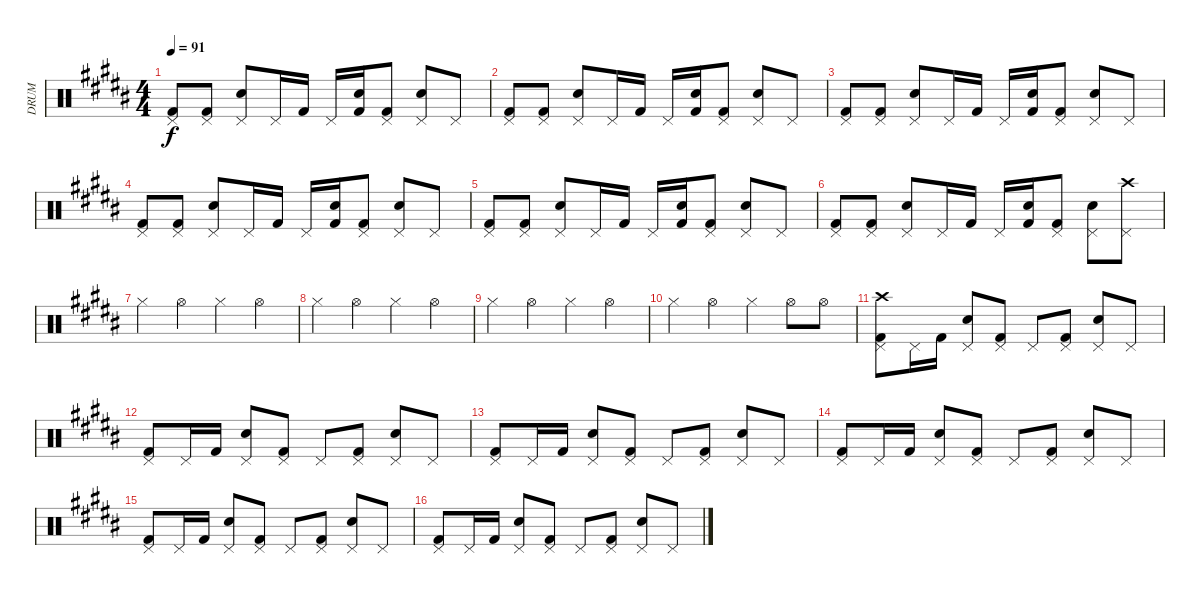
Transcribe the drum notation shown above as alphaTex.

\track ("DRUM" "DRUM") {instrument percussion}
\staff {score}
\articulation defaults
\ts (4 4)
\tempo 91
\clef neutral
\ks b
("Pedal Hi-Hat (hit)" "Kick (hit) 2").8{dy f} ("Pedal Hi-Hat (hit)" "Kick (hit) 2").8 ("Pedal Hi-Hat (hit)" "Electric Snare (hit)").8 "Pedal Hi-Hat (hit)".16 "Kick (hit) 2".16 "Pedal Hi-Hat (hit)".16 ("Electric Snare (hit)" "Kick (hit) 2").16 ("Pedal Hi-Hat (hit)" "Kick (hit) 2").8 ("Pedal Hi-Hat (hit)" "Electric Snare (hit)").8 "Pedal Hi-Hat (hit)".8 |
("Pedal Hi-Hat (hit)" "Kick (hit) 2").8 ("Pedal Hi-Hat (hit)" "Kick (hit) 2").8 ("Pedal Hi-Hat (hit)" "Electric Snare (hit)").8 "Pedal Hi-Hat (hit)".16 "Kick (hit) 2".16 "Pedal Hi-Hat (hit)".16 ("Electric Snare (hit)" "Kick (hit) 2").16 ("Pedal Hi-Hat (hit)" "Kick (hit) 2").8 ("Pedal Hi-Hat (hit)" "Electric Snare (hit)").8 "Pedal Hi-Hat (hit)".8 |
("Pedal Hi-Hat (hit)" "Kick (hit) 2").8 ("Pedal Hi-Hat (hit)" "Kick (hit) 2").8 ("Pedal Hi-Hat (hit)" "Electric Snare (hit)").8 "Pedal Hi-Hat (hit)".16 "Kick (hit) 2".16 "Pedal Hi-Hat (hit)".16 ("Electric Snare (hit)" "Kick (hit) 2").16 ("Pedal Hi-Hat (hit)" "Kick (hit) 2").8 ("Pedal Hi-Hat (hit)" "Electric Snare (hit)").8 "Pedal Hi-Hat (hit)".8 |
("Pedal Hi-Hat (hit)" "Kick (hit) 2").8 ("Pedal Hi-Hat (hit)" "Kick (hit) 2").8 ("Pedal Hi-Hat (hit)" "Electric Snare (hit)").8 "Pedal Hi-Hat (hit)".16 "Kick (hit) 2".16 "Pedal Hi-Hat (hit)".16 ("Electric Snare (hit)" "Kick (hit) 2").16 ("Pedal Hi-Hat (hit)" "Kick (hit) 2").8 ("Pedal Hi-Hat (hit)" "Electric Snare (hit)").8 "Pedal Hi-Hat (hit)".8 |
("Pedal Hi-Hat (hit)" "Kick (hit) 2").8 ("Pedal Hi-Hat (hit)" "Kick (hit) 2").8 ("Pedal Hi-Hat (hit)" "Electric Snare (hit)").8 "Pedal Hi-Hat (hit)".16 "Kick (hit) 2".16 "Pedal Hi-Hat (hit)".16 ("Electric Snare (hit)" "Kick (hit) 2").16 ("Pedal Hi-Hat (hit)" "Kick (hit) 2").8 ("Pedal Hi-Hat (hit)" "Electric Snare (hit)").8 "Pedal Hi-Hat (hit)".8 |
("Pedal Hi-Hat (hit)" "Kick (hit) 2").8 ("Pedal Hi-Hat (hit)" "Kick (hit) 2").8 ("Pedal Hi-Hat (hit)" "Electric Snare (hit)").8 "Pedal Hi-Hat (hit)".16 "Kick (hit) 2".16 "Pedal Hi-Hat (hit)".16 ("Electric Snare (hit)" "Kick (hit) 2").16 ("Pedal Hi-Hat (hit)" "Kick (hit) 2").8 ("Pedal Hi-Hat (hit)" "Electric Snare (hit)").8 ("Crash high (hit)" "Pedal Hi-Hat (hit)").8 |
"Hi-Hat (closed)".4 "Hi-Hat (open)".4 "Hi-Hat (closed)".4 "Hi-Hat (open)".4 |
"Hi-Hat (closed)".4 "Hi-Hat (open)".4 "Hi-Hat (closed)".4 "Hi-Hat (open)".4 |
"Hi-Hat (closed)".4 "Hi-Hat (open)".4 "Hi-Hat (closed)".4 "Hi-Hat (open)".4 |
"Hi-Hat (closed)".4 "Hi-Hat (open)".4 "Hi-Hat (closed)".4 "Hi-Hat (open)".8 "Hi-Hat (open)".8 |
("Crash high (hit)" "Pedal Hi-Hat (hit)" "Kick (hit) 2").8 "Pedal Hi-Hat (hit)".16 "Kick (hit) 2".16 ("Pedal Hi-Hat (hit)" "Electric Snare (hit)").8 ("Pedal Hi-Hat (hit)" "Kick (hit) 2").8 "Pedal Hi-Hat (hit)".8 ("Pedal Hi-Hat (hit)" "Kick (hit) 2").8 ("Pedal Hi-Hat (hit)" "Electric Snare (hit)").8 "Pedal Hi-Hat (hit)".8 |
("Pedal Hi-Hat (hit)" "Kick (hit) 2").8 "Pedal Hi-Hat (hit)".16 "Kick (hit) 2".16 ("Pedal Hi-Hat (hit)" "Electric Snare (hit)").8 ("Pedal Hi-Hat (hit)" "Kick (hit) 2").8 "Pedal Hi-Hat (hit)".8 ("Pedal Hi-Hat (hit)" "Kick (hit) 2").8 ("Pedal Hi-Hat (hit)" "Electric Snare (hit)").8 "Pedal Hi-Hat (hit)".8 |
("Pedal Hi-Hat (hit)" "Kick (hit) 2").8 "Pedal Hi-Hat (hit)".16 "Kick (hit) 2".16 ("Pedal Hi-Hat (hit)" "Electric Snare (hit)").8 ("Pedal Hi-Hat (hit)" "Kick (hit) 2").8 "Pedal Hi-Hat (hit)".8 ("Pedal Hi-Hat (hit)" "Kick (hit) 2").8 ("Pedal Hi-Hat (hit)" "Electric Snare (hit)").8 "Pedal Hi-Hat (hit)".8 |
("Pedal Hi-Hat (hit)" "Kick (hit) 2").8 "Pedal Hi-Hat (hit)".16 "Kick (hit) 2".16 ("Pedal Hi-Hat (hit)" "Electric Snare (hit)").8 ("Pedal Hi-Hat (hit)" "Kick (hit) 2").8 "Pedal Hi-Hat (hit)".8 ("Pedal Hi-Hat (hit)" "Kick (hit) 2").8 ("Pedal Hi-Hat (hit)" "Electric Snare (hit)").8 "Pedal Hi-Hat (hit)".8 |
("Pedal Hi-Hat (hit)" "Kick (hit) 2").8 "Pedal Hi-Hat (hit)".16 "Kick (hit) 2".16 ("Pedal Hi-Hat (hit)" "Electric Snare (hit)").8 ("Pedal Hi-Hat (hit)" "Kick (hit) 2").8 "Pedal Hi-Hat (hit)".8 ("Pedal Hi-Hat (hit)" "Kick (hit) 2").8 ("Pedal Hi-Hat (hit)" "Electric Snare (hit)").8 "Pedal Hi-Hat (hit)".8 |
("Pedal Hi-Hat (hit)" "Kick (hit) 2").8 "Pedal Hi-Hat (hit)".16 "Kick (hit) 2".16 ("Pedal Hi-Hat (hit)" "Electric Snare (hit)").8 ("Pedal Hi-Hat (hit)" "Kick (hit) 2").8 "Pedal Hi-Hat (hit)".8 ("Pedal Hi-Hat (hit)" "Kick (hit) 2").8 ("Pedal Hi-Hat (hit)" "Electric Snare (hit)").8 "Pedal Hi-Hat (hit)".8
